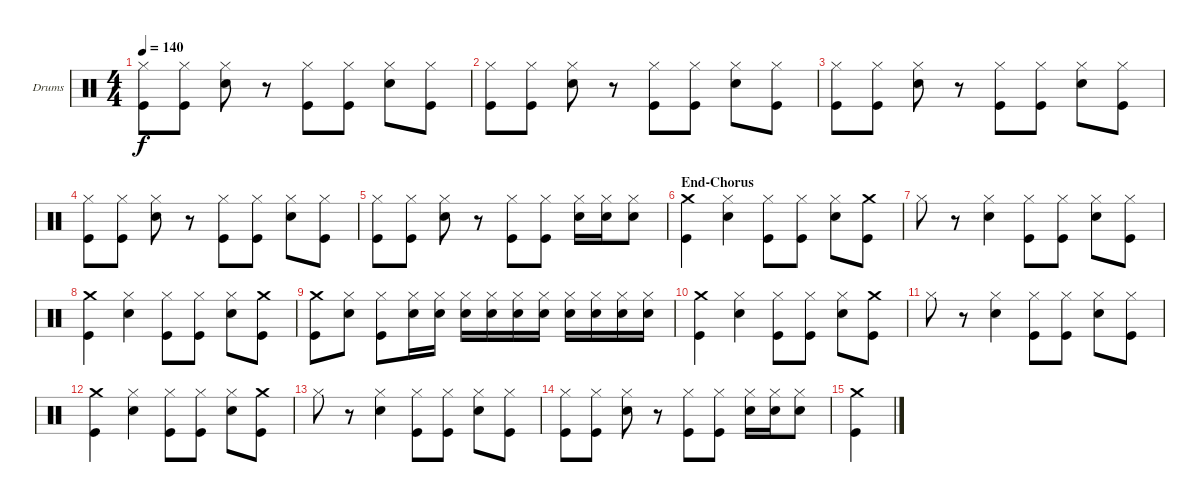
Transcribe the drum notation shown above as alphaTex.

\defaultSystemsLayout 4
\bracketExtendMode groupsimilarinstruments
\firstSystemTrackNameOrientation horizontal
\otherSystemsTrackNameOrientation horizontal
\track ("Jerinx" "Drums") {instrument percussion}
\staff {score}
\articulation defaults
\ts (4 4)
\tempo 140
\clef neutral
\scale
0.333333
\ks c
("Hi-Hat (closed)" "Kick (hit)").8{dy f} ("Hi-Hat (closed)" "Kick (hit)").8 ("Hi-Hat (closed)" "Snare (hit) 2").8 r.8 ("Hi-Hat (closed)" "Kick (hit)").8 ("Hi-Hat (closed)" "Kick (hit)").8 ("Hi-Hat (closed)" "Snare (hit) 2").8 ("Hi-Hat (closed)" "Kick (hit)").8 |
\scale
0.333333 ("Hi-Hat (closed)" "Kick (hit)").8 ("Hi-Hat (closed)" "Kick (hit)").8 ("Hi-Hat (closed)" "Snare (hit) 2").8 r.8 ("Hi-Hat (closed)" "Kick (hit)").8 ("Hi-Hat (closed)" "Kick (hit)").8 ("Hi-Hat (closed)" "Snare (hit) 2").8 ("Hi-Hat (closed)" "Kick (hit)").8 |
\scale
0.333333 ("Hi-Hat (closed)" "Kick (hit)").8 ("Hi-Hat (closed)" "Kick (hit)").8 ("Hi-Hat (closed)" "Snare (hit) 2").8 r.8 ("Hi-Hat (closed)" "Kick (hit)").8 ("Hi-Hat (closed)" "Kick (hit)").8 ("Hi-Hat (closed)" "Snare (hit) 2").8 ("Hi-Hat (closed)" "Kick (hit)").8 |
\scale
0.333333 ("Hi-Hat (closed)" "Kick (hit)").8 ("Hi-Hat (closed)" "Kick (hit)").8 ("Hi-Hat (closed)" "Snare (hit) 2").8 r.8 ("Hi-Hat (closed)" "Kick (hit)").8 ("Hi-Hat (closed)" "Kick (hit)").8 ("Hi-Hat (closed)" "Snare (hit) 2").8 ("Hi-Hat (closed)" "Kick (hit)").8 |
\scale
0.333333 ("Hi-Hat (closed)" "Kick (hit)").8 ("Hi-Hat (closed)" "Kick (hit)").8 ("Hi-Hat (closed)" "Snare (hit) 2").8 r.8 ("Hi-Hat (closed)" "Kick (hit)").8 ("Hi-Hat (closed)" "Kick (hit)").8 ("Hi-Hat (closed)" "Snare (hit) 2").16 ("Hi-Hat (closed)" "Snare (hit) 2").16 ("Hi-Hat (closed)" "Snare (hit) 2").8 |
\section ("" "End-Chorus")
\scale
0.333333 ("Crash medium (hit)" "Kick (hit)").4 ("Hi-Hat (closed)" "Snare (hit) 2").4 ("Hi-Hat (closed)" "Kick (hit)").8 ("Hi-Hat (closed)" "Kick (hit)").8 ("Hi-Hat (closed)" "Snare (hit) 2").8 ("Crash medium (hit)" "Kick (hit)").8 |
\scale
0.333333 "Hi-Hat (closed)".8 r.8 ("Hi-Hat (closed)" "Snare (hit) 2").4 ("Hi-Hat (closed)" "Kick (hit)").8 ("Hi-Hat (closed)" "Kick (hit)").8 ("Hi-Hat (closed)" "Snare (hit) 2").8 ("Hi-Hat (closed)" "Kick (hit)").8 |
\scale
0.333333 ("Crash medium (hit)" "Kick (hit)").4 ("Hi-Hat (closed)" "Snare (hit) 2").4 ("Hi-Hat (closed)" "Kick (hit)").8 ("Hi-Hat (closed)" "Kick (hit)").8 ("Hi-Hat (closed)" "Snare (hit) 2").8 ("Crash medium (hit)" "Kick (hit)").8 |
\scale
0.333333 ("Crash medium (hit)" "Kick (hit)").8 ("Hi-Hat (closed)" "Snare (hit) 2").8 ("Hi-Hat (closed)" "Kick (hit)").8 ("Hi-Hat (closed)" "Snare (hit) 2").16 ("Hi-Hat (closed)" "Snare (hit) 2").16 ("Hi-Hat (closed)" "Snare (hit) 2").16 ("Hi-Hat (closed)" "Snare (hit) 2").16 ("Hi-Hat (closed)" "Snare (hit) 2").16 ("Hi-Hat (closed)" "Snare (hit) 2").16 ("Hi-Hat (closed)" "Snare (hit) 2").16 ("Hi-Hat (closed)" "Snare (hit) 2").16 ("Hi-Hat (closed)" "Snare (hit) 2").16 ("Hi-Hat (closed)" "Snare (hit) 2").16 |
\scale
0.333333 ("Crash medium (hit)" "Kick (hit)").4 ("Hi-Hat (closed)" "Snare (hit) 2").4 ("Hi-Hat (closed)" "Kick (hit)").8 ("Hi-Hat (closed)" "Kick (hit)").8 ("Hi-Hat (closed)" "Snare (hit) 2").8 ("Crash medium (hit)" "Kick (hit)").8 |
\scale
0.333333 "Hi-Hat (closed)".8 r.8 ("Hi-Hat (closed)" "Snare (hit) 2").4 ("Hi-Hat (closed)" "Kick (hit)").8 ("Hi-Hat (closed)" "Kick (hit)").8 ("Hi-Hat (closed)" "Snare (hit) 2").8 ("Hi-Hat (closed)" "Kick (hit)").8 |
\scale
0.333333 ("Crash medium (hit)" "Kick (hit)").4 ("Hi-Hat (closed)" "Snare (hit) 2").4 ("Hi-Hat (closed)" "Kick (hit)").8 ("Hi-Hat (closed)" "Kick (hit)").8 ("Hi-Hat (closed)" "Snare (hit) 2").8 ("Crash medium (hit)" "Kick (hit)").8 |
"Hi-Hat (closed)".8 r.8 ("Hi-Hat (closed)" "Snare (hit) 2").4 ("Hi-Hat (closed)" "Kick (hit)").8 ("Hi-Hat (closed)" "Kick (hit)").8 ("Hi-Hat (closed)" "Snare (hit) 2").8 ("Hi-Hat (closed)" "Kick (hit)").8 |
("Hi-Hat (closed)" "Kick (hit)").8 ("Hi-Hat (closed)" "Kick (hit)").8 ("Hi-Hat (closed)" "Snare (hit) 2").8 r.8 ("Hi-Hat (closed)" "Kick (hit)").8 ("Hi-Hat (closed)" "Kick (hit)").8 ("Hi-Hat (closed)" "Snare (hit) 2").16 ("Hi-Hat (closed)" "Snare (hit) 2").16 ("Hi-Hat (closed)" "Snare (hit) 2").8 |
("Crash medium (hit)" "Kick (hit)").4
